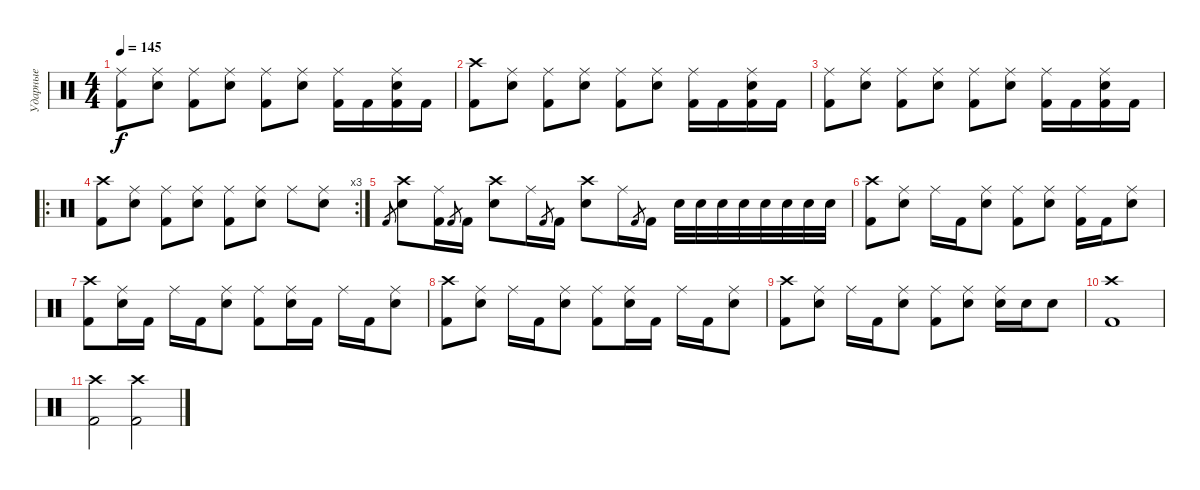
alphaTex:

\track ("Ударные" "Ударные") {instrument percussion}
\staff {score}
\articulation defaults
\ts (4 4)
\tempo 145
\clef neutral
\ks c
("Kick (hit) 2" "Ride (middle)").8{dy f} ("Electric Snare (hit)" "Ride (middle)").8 ("Kick (hit) 2" "Ride (middle)").8 ("Electric Snare (hit)" "Ride (middle)").8 ("Kick (hit) 2" "Ride (middle)").8 ("Electric Snare (hit)" "Ride (middle)").8 ("Kick (hit) 2" "Ride (middle)").16 "Kick (hit) 2".16 ("Kick (hit) 2" "Ride (middle)" "Electric Snare (hit)").16 "Kick (hit) 2".16 |
("Kick (hit) 2" "Crash high (hit)").8 ("Electric Snare (hit)" "Ride (middle)").8 ("Kick (hit) 2" "Ride (middle)").8 ("Electric Snare (hit)" "Ride (middle)").8 ("Kick (hit) 2" "Ride (middle)").8 ("Electric Snare (hit)" "Ride (middle)").8 ("Kick (hit) 2" "Ride (middle)").16 "Kick (hit) 2".16 ("Kick (hit) 2" "Ride (middle)" "Electric Snare (hit)").16 "Kick (hit) 2".16 |
("Kick (hit) 2" "Ride (middle)").8 ("Electric Snare (hit)" "Ride (middle)").8 ("Kick (hit) 2" "Ride (middle)").8 ("Electric Snare (hit)" "Ride (middle)").8 ("Kick (hit) 2" "Ride (middle)").8 ("Electric Snare (hit)" "Ride (middle)").8 ("Kick (hit) 2" "Ride (middle)").16 "Kick (hit) 2".16 ("Kick (hit) 2" "Ride (middle)" "Electric Snare (hit)").16 "Kick (hit) 2".16 |
\ro
\rc 3
("Kick (hit) 2" "Crash high (hit)").8 ("Electric Snare (hit)" "Ride (middle)").8 ("Kick (hit) 2" "Ride (middle)").8 ("Electric Snare (hit)" "Ride (middle)").8 ("Kick (hit) 2" "Ride (middle)").8 ("Electric Snare (hit)" "Ride (middle)").8 "Ride (middle)".8 ("Ride (middle)" "Electric Snare (hit)").8 |
"Kick (hit) 2".8{gr} ("Electric Snare (hit)" "Crash high (hit)").8 ("Kick (hit) 2" "Ride (middle)").16 "Kick (hit) 2".8{gr} "Kick (hit) 2".16 ("Electric Snare (hit)" "Crash high (hit)").8 "Ride (middle)".16 "Kick (hit) 2".8{gr} "Kick (hit) 2".16 ("Electric Snare (hit)" "Crash high (hit)").8 "Ride (middle)".16 "Kick (hit) 2".8{gr} "Kick (hit) 2".16 "Electric Snare (hit)".32 "Electric Snare (hit)".32 "Electric Snare (hit)".32 "Electric Snare (hit)".32 "Electric Snare (hit)".32 "Electric Snare (hit)".32 "Electric Snare (hit)".32 "Electric Snare (hit)".32 |
("Kick (hit) 2" "Crash high (hit)").8 ("Electric Snare (hit)" "Ride (middle)").8 "Ride (middle)".16 "Kick (hit) 2".16 ("Electric Snare (hit)" "Ride (middle)").8 ("Kick (hit) 2" "Ride (middle)").8 ("Electric Snare (hit)" "Ride (middle)").8 ("Kick (hit) 2" "Ride (middle)").16 "Kick (hit) 2".16 ("Electric Snare (hit)" "Ride (middle)").8 |
("Kick (hit) 2" "Crash high (hit)").8 ("Electric Snare (hit)" "Ride (middle)").16 "Kick (hit) 2".16 "Ride (middle)".16 "Kick (hit) 2".16 ("Electric Snare (hit)" "Ride (middle)").8 ("Kick (hit) 2" "Ride (middle)").8 ("Electric Snare (hit)" "Ride (middle)").16 "Kick (hit) 2".16 "Ride (middle)".16 "Kick (hit) 2".16 ("Electric Snare (hit)" "Ride (middle)").8 |
("Kick (hit) 2" "Crash high (hit)").8 ("Electric Snare (hit)" "Ride (middle)").8 "Ride (middle)".16 "Kick (hit) 2".16 ("Electric Snare (hit)" "Ride (middle)").8 ("Kick (hit) 2" "Ride (middle)").8 ("Electric Snare (hit)" "Ride (middle)").16 "Kick (hit) 2".16 "Ride (middle)".16 "Kick (hit) 2".16 ("Electric Snare (hit)" "Ride (middle)").8 |
("Kick (hit) 2" "Crash high (hit)").8 ("Electric Snare (hit)" "Ride (middle)").8 "Ride (middle)".16 "Kick (hit) 2".16 ("Electric Snare (hit)" "Ride (middle)").8 ("Kick (hit) 2" "Ride (middle)").8 ("Electric Snare (hit)" "Ride (middle)").8 ("Electric Snare (hit)" "Ride (middle)").16 "Electric Snare (hit)".16 "Electric Snare (hit)".8 |
("Kick (hit) 2" "Crash high (hit)").1 |
("Kick (hit) 2" "Crash high (hit)").2 ("Kick (hit) 2" "Crash high (hit)").2
